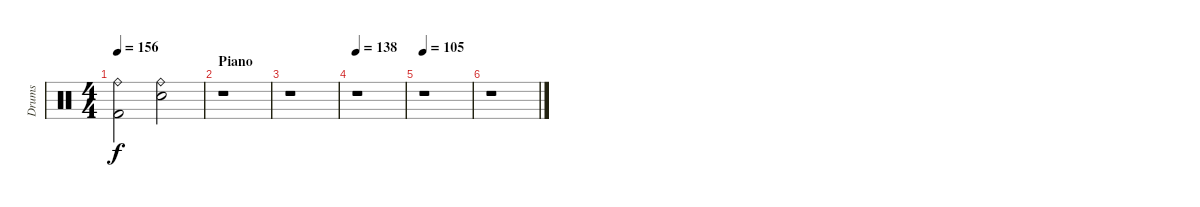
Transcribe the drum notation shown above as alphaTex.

\track ("Drums" "Drums") {instrument percussion}
\staff {score}
\articulation defaults
\ts (4 4)
\tempo 156
\clef neutral
\ks c
("Kick (hit) 2" "Ride (bell)").2{dy f} ("Electric Snare (hit)" "Ride (bell)").2 |
\section ("" "Piano")
r.1 |
r.1 |
\tempo 138
r.1 |
\tempo 86
\tempo 105
r.1 |
r.1
